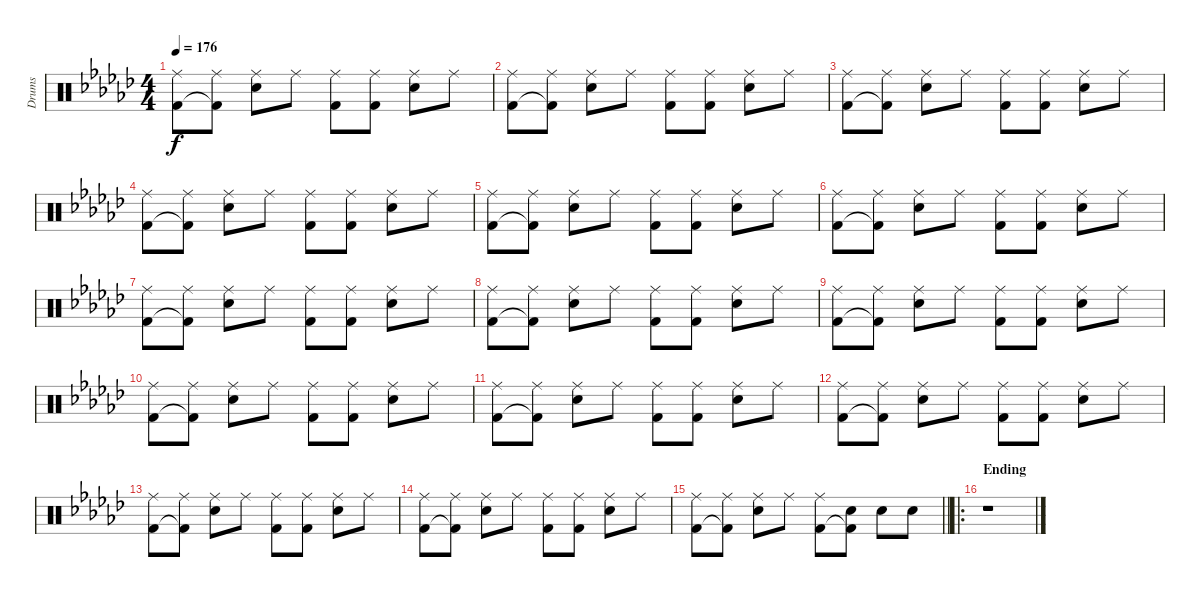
\track ("Drums" "Drums") {instrument percussion}
\staff {score}
\articulation defaults
\ts (4 4)
\tempo 176
\clef neutral
\ks ebminor
("Ride (middle)" "Kick (hit) 2").8{dy f} ("Ride (middle)" "Kick (hit) 2"{t}).8 ("Ride (middle)" "Electric Snare (hit)").8 "Ride (middle)".8 ("Ride (middle)" "Kick (hit) 2").8 ("Ride (middle)" "Kick (hit) 2").8 ("Ride (middle)" "Electric Snare (hit)").8 "Ride (middle)".8 |
("Ride (middle)" "Kick (hit) 2").8 ("Ride (middle)" "Kick (hit) 2"{t}).8 ("Ride (middle)" "Electric Snare (hit)").8 "Ride (middle)".8 ("Ride (middle)" "Kick (hit) 2").8 ("Ride (middle)" "Kick (hit) 2").8 ("Ride (middle)" "Electric Snare (hit)").8 "Ride (middle)".8 |
("Ride (middle)" "Kick (hit) 2").8 ("Ride (middle)" "Kick (hit) 2"{t}).8 ("Ride (middle)" "Electric Snare (hit)").8 "Ride (middle)".8 ("Ride (middle)" "Kick (hit) 2").8 ("Ride (middle)" "Kick (hit) 2").8 ("Ride (middle)" "Electric Snare (hit)").8 "Ride (middle)".8 |
("Ride (middle)" "Kick (hit) 2").8 ("Ride (middle)" "Kick (hit) 2"{t}).8 ("Ride (middle)" "Electric Snare (hit)").8 "Ride (middle)".8 ("Ride (middle)" "Kick (hit) 2").8 ("Ride (middle)" "Kick (hit) 2").8 ("Ride (middle)" "Electric Snare (hit)").8 "Ride (middle)".8 |
("Ride (middle)" "Kick (hit) 2").8 ("Ride (middle)" "Kick (hit) 2"{t}).8 ("Ride (middle)" "Electric Snare (hit)").8 "Ride (middle)".8 ("Ride (middle)" "Kick (hit) 2").8 ("Ride (middle)" "Kick (hit) 2").8 ("Ride (middle)" "Electric Snare (hit)").8 "Ride (middle)".8 |
("Ride (middle)" "Kick (hit) 2").8 ("Ride (middle)" "Kick (hit) 2"{t}).8 ("Ride (middle)" "Electric Snare (hit)").8 "Ride (middle)".8 ("Ride (middle)" "Kick (hit) 2").8 ("Ride (middle)" "Kick (hit) 2").8 ("Ride (middle)" "Electric Snare (hit)").8 "Ride (middle)".8 |
("Ride (middle)" "Kick (hit) 2").8 ("Ride (middle)" "Kick (hit) 2"{t}).8 ("Ride (middle)" "Electric Snare (hit)").8 "Ride (middle)".8 ("Ride (middle)" "Kick (hit) 2").8 ("Ride (middle)" "Kick (hit) 2").8 ("Ride (middle)" "Electric Snare (hit)").8 "Ride (middle)".8 |
("Ride (middle)" "Kick (hit) 2").8 ("Ride (middle)" "Kick (hit) 2"{t}).8 ("Ride (middle)" "Electric Snare (hit)").8 "Ride (middle)".8 ("Ride (middle)" "Kick (hit) 2").8 ("Ride (middle)" "Kick (hit) 2").8 ("Ride (middle)" "Electric Snare (hit)").8 "Ride (middle)".8 |
("Ride (middle)" "Kick (hit) 2").8 ("Ride (middle)" "Kick (hit) 2"{t}).8 ("Ride (middle)" "Electric Snare (hit)").8 "Ride (middle)".8 ("Ride (middle)" "Kick (hit) 2").8 ("Ride (middle)" "Kick (hit) 2").8 ("Ride (middle)" "Electric Snare (hit)").8 "Ride (middle)".8 |
("Ride (middle)" "Kick (hit) 2").8 ("Ride (middle)" "Kick (hit) 2"{t}).8 ("Ride (middle)" "Electric Snare (hit)").8 "Ride (middle)".8 ("Ride (middle)" "Kick (hit) 2").8 ("Ride (middle)" "Kick (hit) 2").8 ("Ride (middle)" "Electric Snare (hit)").8 "Ride (middle)".8 |
("Ride (middle)" "Kick (hit) 2").8 ("Ride (middle)" "Kick (hit) 2"{t}).8 ("Ride (middle)" "Electric Snare (hit)").8 "Ride (middle)".8 ("Ride (middle)" "Kick (hit) 2").8 ("Ride (middle)" "Kick (hit) 2").8 ("Ride (middle)" "Electric Snare (hit)").8 "Ride (middle)".8 |
("Ride (middle)" "Kick (hit) 2").8 ("Ride (middle)" "Kick (hit) 2"{t}).8 ("Ride (middle)" "Electric Snare (hit)").8 "Ride (middle)".8 ("Ride (middle)" "Kick (hit) 2").8 ("Ride (middle)" "Kick (hit) 2").8 ("Ride (middle)" "Electric Snare (hit)").8 "Ride (middle)".8 |
("Ride (middle)" "Kick (hit) 2").8 ("Ride (middle)" "Kick (hit) 2"{t}).8 ("Ride (middle)" "Electric Snare (hit)").8 "Ride (middle)".8 ("Ride (middle)" "Kick (hit) 2").8 ("Ride (middle)" "Kick (hit) 2").8 ("Ride (middle)" "Electric Snare (hit)").8 "Ride (middle)".8 |
("Ride (middle)" "Kick (hit) 2").8 ("Ride (middle)" "Kick (hit) 2"{t}).8 ("Ride (middle)" "Electric Snare (hit)").8 "Ride (middle)".8 ("Ride (middle)" "Kick (hit) 2").8 ("Ride (middle)" "Kick (hit) 2").8 ("Ride (middle)" "Electric Snare (hit)").8 "Ride (middle)".8 |
\barLineRight lightlight
("Ride (middle)" "Kick (hit) 2").8 ("Ride (middle)" "Kick (hit) 2"{t}).8 ("Ride (middle)" "Electric Snare (hit)").8 "Ride (middle)".8 ("Ride (middle)" "Kick (hit) 2").8 ("Electric Snare (hit)" "Kick (hit) 2"{t}).8 "Electric Snare (hit)".8 "Electric Snare (hit)".8 |
\ro
\section ("" "Ending")
r.1
